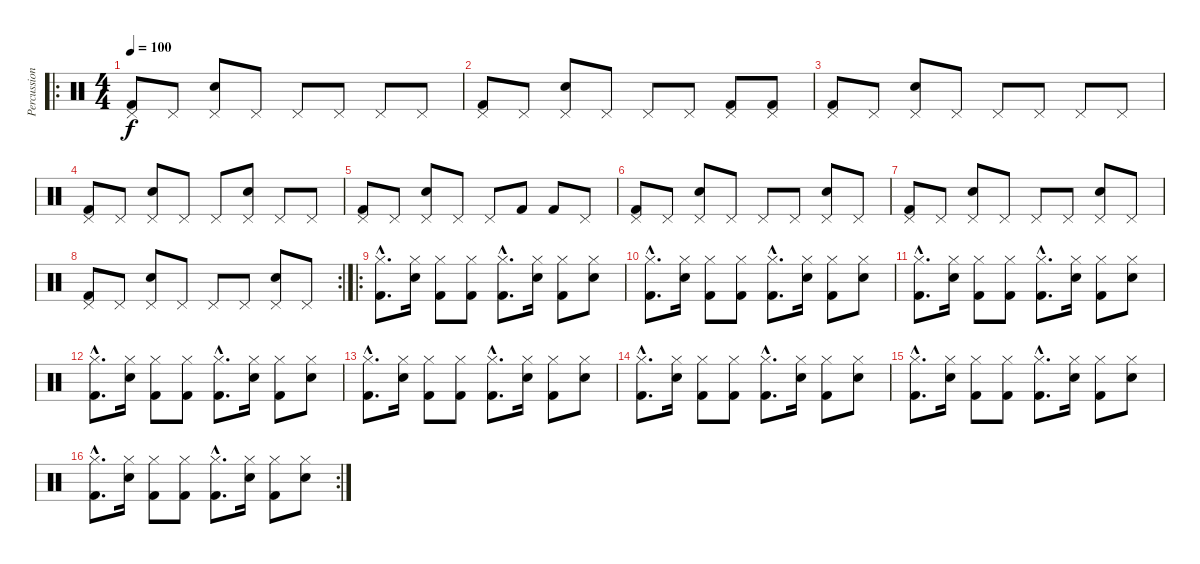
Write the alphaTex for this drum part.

\track ("Percussions" "Percussion") {instrument percussion}
\staff {score}
\articulation defaults
\ro
\ts (4 4)
\tempo 100
\clef neutral
\ks c
("Kick (hit) 2" "Pedal Hi-Hat (hit)").8{dy f} "Pedal Hi-Hat (hit)".8 ("Electric Snare (hit)" "Pedal Hi-Hat (hit)").8 "Pedal Hi-Hat (hit)".8 "Pedal Hi-Hat (hit)".8 "Pedal Hi-Hat (hit)".8 "Pedal Hi-Hat (hit)".8 "Pedal Hi-Hat (hit)".8 |
("Kick (hit) 2" "Pedal Hi-Hat (hit)").8 "Pedal Hi-Hat (hit)".8 ("Electric Snare (hit)" "Pedal Hi-Hat (hit)").8 "Pedal Hi-Hat (hit)".8 "Pedal Hi-Hat (hit)".8 "Pedal Hi-Hat (hit)".8 ("Kick (hit) 2" "Pedal Hi-Hat (hit)").8 ("Kick (hit) 2" "Pedal Hi-Hat (hit)").8 |
("Kick (hit) 2" "Pedal Hi-Hat (hit)").8 "Pedal Hi-Hat (hit)".8 ("Electric Snare (hit)" "Pedal Hi-Hat (hit)").8 "Pedal Hi-Hat (hit)".8 "Pedal Hi-Hat (hit)".8 "Pedal Hi-Hat (hit)".8 "Pedal Hi-Hat (hit)".8 "Pedal Hi-Hat (hit)".8 |
("Kick (hit) 2" "Pedal Hi-Hat (hit)").8 "Pedal Hi-Hat (hit)".8 ("Electric Snare (hit)" "Pedal Hi-Hat (hit)").8 "Pedal Hi-Hat (hit)".8 "Pedal Hi-Hat (hit)".8 ("Electric Snare (hit)" "Pedal Hi-Hat (hit)").8 "Pedal Hi-Hat (hit)".8 "Pedal Hi-Hat (hit)".8 |
("Kick (hit) 2" "Pedal Hi-Hat (hit)").8 "Pedal Hi-Hat (hit)".8 ("Electric Snare (hit)" "Pedal Hi-Hat (hit)").8 "Pedal Hi-Hat (hit)".8 "Pedal Hi-Hat (hit)".8 "Kick (hit) 2".8 "Kick (hit) 2".8 "Pedal Hi-Hat (hit)".8 |
("Kick (hit) 2" "Pedal Hi-Hat (hit)").8 "Pedal Hi-Hat (hit)".8 ("Electric Snare (hit)" "Pedal Hi-Hat (hit)").8 "Pedal Hi-Hat (hit)".8 "Pedal Hi-Hat (hit)".8 "Pedal Hi-Hat (hit)".8 ("Electric Snare (hit)" "Pedal Hi-Hat (hit)").8 "Pedal Hi-Hat (hit)".8 |
("Kick (hit) 2" "Pedal Hi-Hat (hit)").8 "Pedal Hi-Hat (hit)".8 ("Electric Snare (hit)" "Pedal Hi-Hat (hit)").8 "Pedal Hi-Hat (hit)".8 "Pedal Hi-Hat (hit)".8 "Pedal Hi-Hat (hit)".8 ("Electric Snare (hit)" "Pedal Hi-Hat (hit)").8 "Pedal Hi-Hat (hit)".8 |
\rc 2
("Kick (hit) 2" "Pedal Hi-Hat (hit)").8 "Pedal Hi-Hat (hit)".8 ("Electric Snare (hit)" "Pedal Hi-Hat (hit)").8 "Pedal Hi-Hat (hit)".8 "Pedal Hi-Hat (hit)".8 "Pedal Hi-Hat (hit)".8 ("Electric Snare (hit)" "Pedal Hi-Hat (hit)").8 "Pedal Hi-Hat (hit)".8 |
\ro
("Hi-Hat (closed)"{hac} "Kick (hit) 2"{hac}).8{d} ("Hi-Hat (closed)" "Electric Snare (hit)").16 ("Hi-Hat (closed)" "Kick (hit) 2").8 ("Hi-Hat (closed)" "Kick (hit) 2").8 ("Hi-Hat (closed)"{hac} "Kick (hit) 2"{hac}).8{d} ("Hi-Hat (closed)" "Electric Snare (hit)").16 ("Hi-Hat (closed)" "Kick (hit) 2").8 ("Hi-Hat (closed)" "Electric Snare (hit)").8 |
("Hi-Hat (closed)"{hac} "Kick (hit) 2"{hac}).8{d} ("Hi-Hat (closed)" "Electric Snare (hit)").16 ("Hi-Hat (closed)" "Kick (hit) 2").8 ("Hi-Hat (closed)" "Kick (hit) 2").8 ("Hi-Hat (closed)"{hac} "Kick (hit) 2"{hac}).8{d} ("Hi-Hat (closed)" "Electric Snare (hit)").16 ("Hi-Hat (closed)" "Kick (hit) 2").8 ("Hi-Hat (closed)" "Electric Snare (hit)").8 |
("Hi-Hat (closed)"{hac} "Kick (hit) 2"{hac}).8{d} ("Hi-Hat (closed)" "Electric Snare (hit)").16 ("Hi-Hat (closed)" "Kick (hit) 2").8 ("Hi-Hat (closed)" "Kick (hit) 2").8 ("Hi-Hat (closed)"{hac} "Kick (hit) 2"{hac}).8{d} ("Hi-Hat (closed)" "Electric Snare (hit)").16 ("Hi-Hat (closed)" "Kick (hit) 2").8 ("Hi-Hat (closed)" "Electric Snare (hit)").8 |
("Hi-Hat (closed)"{hac} "Kick (hit) 2"{hac}).8{d} ("Hi-Hat (closed)" "Electric Snare (hit)").16 ("Hi-Hat (closed)" "Kick (hit) 2").8 ("Hi-Hat (closed)" "Kick (hit) 2").8 ("Hi-Hat (closed)"{hac} "Kick (hit) 2"{hac}).8{d} ("Hi-Hat (closed)" "Electric Snare (hit)").16 ("Hi-Hat (closed)" "Kick (hit) 2").8 ("Hi-Hat (closed)" "Electric Snare (hit)").8 |
("Hi-Hat (closed)"{hac} "Kick (hit) 2"{hac}).8{d} ("Hi-Hat (closed)" "Electric Snare (hit)").16 ("Hi-Hat (closed)" "Kick (hit) 2").8 ("Hi-Hat (closed)" "Kick (hit) 2").8 ("Hi-Hat (closed)"{hac} "Kick (hit) 2"{hac}).8{d} ("Hi-Hat (closed)" "Electric Snare (hit)").16 ("Hi-Hat (closed)" "Kick (hit) 2").8 ("Hi-Hat (closed)" "Electric Snare (hit)").8 |
("Hi-Hat (closed)"{hac} "Kick (hit) 2"{hac}).8{d} ("Hi-Hat (closed)" "Electric Snare (hit)").16 ("Hi-Hat (closed)" "Kick (hit) 2").8 ("Hi-Hat (closed)" "Kick (hit) 2").8 ("Hi-Hat (closed)"{hac} "Kick (hit) 2"{hac}).8{d} ("Hi-Hat (closed)" "Electric Snare (hit)").16 ("Hi-Hat (closed)" "Kick (hit) 2").8 ("Hi-Hat (closed)" "Electric Snare (hit)").8 |
("Hi-Hat (closed)"{hac} "Kick (hit) 2"{hac}).8{d} ("Hi-Hat (closed)" "Electric Snare (hit)").16 ("Hi-Hat (closed)" "Kick (hit) 2").8 ("Hi-Hat (closed)" "Kick (hit) 2").8 ("Hi-Hat (closed)"{hac} "Kick (hit) 2"{hac}).8{d} ("Hi-Hat (closed)" "Electric Snare (hit)").16 ("Hi-Hat (closed)" "Kick (hit) 2").8 ("Hi-Hat (closed)" "Electric Snare (hit)").8 |
\rc 2
("Hi-Hat (closed)"{hac} "Kick (hit) 2"{hac}).8{d} ("Hi-Hat (closed)" "Electric Snare (hit)").16 ("Hi-Hat (closed)" "Kick (hit) 2").8 ("Hi-Hat (closed)" "Kick (hit) 2").8 ("Hi-Hat (closed)"{hac} "Kick (hit) 2"{hac}).8{d} ("Hi-Hat (closed)" "Electric Snare (hit)").16 ("Hi-Hat (closed)" "Kick (hit) 2").8 ("Hi-Hat (closed)" "Electric Snare (hit)").8
